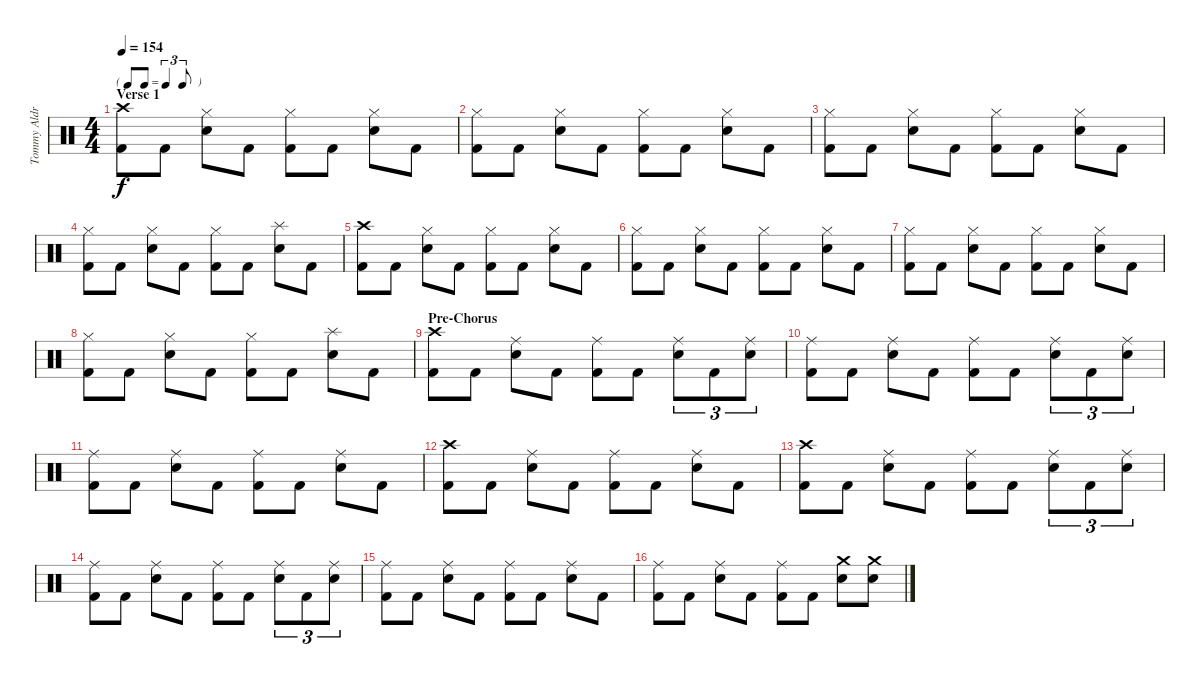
\track ("Tommy Aldridge (Drums)" "Tommy Aldr") {instrument percussion}
\staff {score}
\articulation defaults
\ts (4 4)
\tf triplet8th
\section ("" "Verse 1")
\tempo 154
\clef neutral
\ks c
("Crash high (hit)" "Kick (hit) 2").8{dy f} "Kick (hit) 2".8 ("Hi-Hat (closed)" "Electric Snare (hit)").8 "Kick (hit) 2".8 ("Hi-Hat (closed)" "Kick (hit) 2").8 "Kick (hit) 2".8 ("Hi-Hat (closed)" "Electric Snare (hit)").8 "Kick (hit) 2".8 |
("Hi-Hat (closed)" "Kick (hit) 2").8 "Kick (hit) 2".8 ("Hi-Hat (closed)" "Electric Snare (hit)").8 "Kick (hit) 2".8 ("Hi-Hat (closed)" "Kick (hit) 2").8 "Kick (hit) 2".8 ("Hi-Hat (closed)" "Electric Snare (hit)").8 "Kick (hit) 2".8 |
("Hi-Hat (closed)" "Kick (hit) 2").8 "Kick (hit) 2".8 ("Hi-Hat (closed)" "Electric Snare (hit)").8 "Kick (hit) 2".8 ("Hi-Hat (closed)" "Kick (hit) 2").8 "Kick (hit) 2".8 ("Hi-Hat (closed)" "Electric Snare (hit)").8 "Kick (hit) 2".8 |
("Hi-Hat (closed)" "Kick (hit) 2").8 "Kick (hit) 2".8 ("Hi-Hat (closed)" "Electric Snare (hit)").8 "Kick (hit) 2".8 ("Hi-Hat (closed)" "Kick (hit) 2").8 "Kick (hit) 2".8 ("Splash (hit)" "Electric Snare (hit)").8 "Kick (hit) 2".8 |
("Crash high (hit)" "Kick (hit) 2").8 "Kick (hit) 2".8 ("Hi-Hat (closed)" "Electric Snare (hit)").8 "Kick (hit) 2".8 ("Hi-Hat (closed)" "Kick (hit) 2").8 "Kick (hit) 2".8 ("Hi-Hat (closed)" "Electric Snare (hit)").8 "Kick (hit) 2".8 |
("Hi-Hat (closed)" "Kick (hit) 2").8 "Kick (hit) 2".8 ("Hi-Hat (closed)" "Electric Snare (hit)").8 "Kick (hit) 2".8 ("Hi-Hat (closed)" "Kick (hit) 2").8 "Kick (hit) 2".8 ("Hi-Hat (closed)" "Electric Snare (hit)").8 "Kick (hit) 2".8 |
("Hi-Hat (closed)" "Kick (hit) 2").8 "Kick (hit) 2".8 ("Hi-Hat (closed)" "Electric Snare (hit)").8 "Kick (hit) 2".8 ("Hi-Hat (closed)" "Kick (hit) 2").8 "Kick (hit) 2".8 ("Hi-Hat (closed)" "Electric Snare (hit)").8 "Kick (hit) 2".8 |
("Hi-Hat (closed)" "Kick (hit) 2").8 "Kick (hit) 2".8 ("Hi-Hat (closed)" "Electric Snare (hit)").8 "Kick (hit) 2".8 ("Hi-Hat (closed)" "Kick (hit) 2").8 "Kick (hit) 2".8 ("Splash (hit)" "Electric Snare (hit)").8 "Kick (hit) 2".8 |
\section ("" "Pre-Chorus")
("Crash high (hit)" "Kick (hit) 2").8 "Kick (hit) 2".8 ("Ride (middle)" "Electric Snare (hit)").8 "Kick (hit) 2".8 ("Ride (middle)" "Kick (hit) 2").8 "Kick (hit) 2".8 ("Ride (middle)" "Electric Snare (hit)").8{tu (3 2)} "Kick (hit) 2".8{tu (3 2)} ("Ride (middle)" "Electric Snare (hit)").8{tu (3 2)} |
("Ride (middle)" "Kick (hit) 2").8 "Kick (hit) 2".8 ("Ride (middle)" "Electric Snare (hit)").8 "Kick (hit) 2".8 ("Ride (middle)" "Kick (hit) 2").8 "Kick (hit) 2".8 ("Ride (middle)" "Electric Snare (hit)").8{tu (3 2)} "Kick (hit) 2".8{tu (3 2)} ("Ride (middle)" "Electric Snare (hit)").8{tu (3 2)} |
("Ride (middle)" "Kick (hit) 2").8 "Kick (hit) 2".8 ("Ride (middle)" "Electric Snare (hit)").8 "Kick (hit) 2".8 ("Ride (middle)" "Kick (hit) 2").8 "Kick (hit) 2".8 ("Ride (middle)" "Electric Snare (hit)").8 "Kick (hit) 2".8 |
("Crash high (hit)" "Kick (hit) 2").8 "Kick (hit) 2".8 ("Ride (middle)" "Electric Snare (hit)").8 "Kick (hit) 2".8 ("Ride (middle)" "Kick (hit) 2").8 "Kick (hit) 2".8 ("Ride (middle)" "Electric Snare (hit)").8 "Kick (hit) 2".8 |
("Crash high (hit)" "Kick (hit) 2").8 "Kick (hit) 2".8 ("Ride (middle)" "Electric Snare (hit)").8 "Kick (hit) 2".8 ("Ride (middle)" "Kick (hit) 2").8 "Kick (hit) 2".8 ("Ride (middle)" "Electric Snare (hit)").8{tu (3 2)} "Kick (hit) 2".8{tu (3 2)} ("Ride (middle)" "Electric Snare (hit)").8{tu (3 2)} |
("Ride (middle)" "Kick (hit) 2").8 "Kick (hit) 2".8 ("Ride (middle)" "Electric Snare (hit)").8 "Kick (hit) 2".8 ("Ride (middle)" "Kick (hit) 2").8 "Kick (hit) 2".8 ("Ride (middle)" "Electric Snare (hit)").8{tu (3 2)} "Kick (hit) 2".8{tu (3 2)} ("Ride (middle)" "Electric Snare (hit)").8{tu (3 2)} |
("Ride (middle)" "Kick (hit) 2").8 "Kick (hit) 2".8 ("Ride (middle)" "Electric Snare (hit)").8 "Kick (hit) 2".8 ("Ride (middle)" "Kick (hit) 2").8 "Kick (hit) 2".8 ("Ride (middle)" "Electric Snare (hit)").8 "Kick (hit) 2".8 |
("Ride (middle)" "Kick (hit) 2").8 "Kick (hit) 2".8 ("Ride (middle)" "Electric Snare (hit)").8 "Kick (hit) 2".8 ("Ride (middle)" "Kick (hit) 2").8 "Kick (hit) 2".8 ("Crash medium (hit)" "Electric Snare (hit)").8 ("Crash medium (hit)" "Electric Snare (hit)").8
